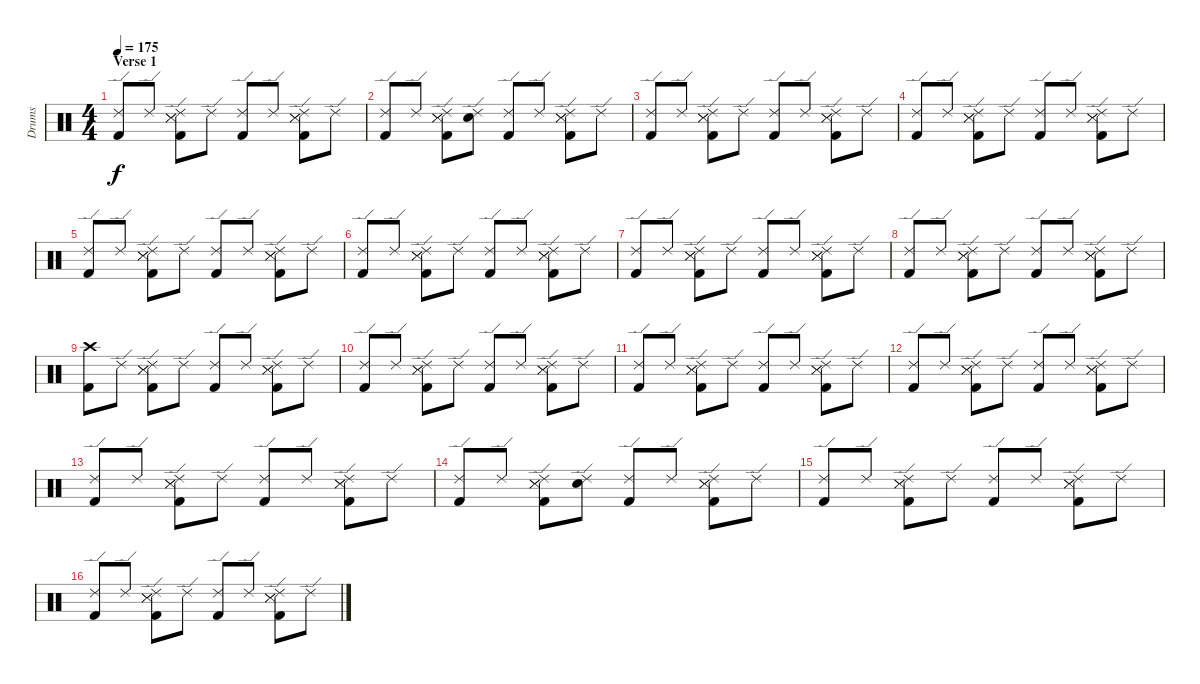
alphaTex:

\track ("Drums" "Drums") {instrument percussion}
\staff {score}
\articulation defaults
\ts (4 4)
\section ("" "Verse 1")
\tempo 175
\clef neutral
\ks c
("Ride (edge) 2" "Kick (hit) 2").8{dy f} "Ride (edge) 2".8 ("Ride (edge) 2" "Snare (side stick) 3" "Snare (side stick) 3" "Kick (hit) 2").8 "Ride (edge) 2".8 ("Ride (edge) 2" "Kick (hit) 2").8 "Ride (edge) 2".8 ("Ride (edge) 2" "Snare (side stick) 3" "Snare (side stick) 3" "Kick (hit) 2").8 "Ride (edge) 2".8 |
("Ride (edge) 2" "Kick (hit) 2").8 "Ride (edge) 2".8 ("Ride (edge) 2" "Snare (side stick) 3" "Snare (side stick) 3" "Kick (hit) 2").8 ("Ride (edge) 2" "Snare (hit)").8 ("Ride (edge) 2" "Kick (hit) 2").8 "Ride (edge) 2".8 ("Ride (edge) 2" "Snare (side stick) 3" "Snare (side stick) 3" "Kick (hit) 2").8 "Ride (edge) 2".8 |
("Ride (edge) 2" "Kick (hit) 2").8 "Ride (edge) 2".8 ("Ride (edge) 2" "Snare (side stick) 3" "Snare (side stick) 3" "Kick (hit) 2").8 "Ride (edge) 2".8 ("Ride (edge) 2" "Kick (hit) 2").8 "Ride (edge) 2".8 ("Ride (edge) 2" "Snare (side stick) 3" "Snare (side stick) 3" "Kick (hit) 2").8 "Ride (edge) 2".8 |
("Ride (edge) 2" "Kick (hit) 2").8 "Ride (edge) 2".8 ("Ride (edge) 2" "Snare (side stick) 3" "Snare (side stick) 3" "Kick (hit) 2").8 "Ride (edge) 2".8 ("Ride (edge) 2" "Kick (hit) 2").8 "Ride (edge) 2".8 ("Ride (edge) 2" "Snare (side stick) 3" "Snare (side stick) 3" "Kick (hit) 2").8 "Ride (edge) 2".8 |
("Ride (edge) 2" "Kick (hit) 2").8 "Ride (edge) 2".8 ("Ride (edge) 2" "Snare (side stick) 3" "Snare (side stick) 3" "Kick (hit) 2").8 "Ride (edge) 2".8 ("Ride (edge) 2" "Kick (hit) 2").8 "Ride (edge) 2".8 ("Ride (edge) 2" "Snare (side stick) 3" "Snare (side stick) 3" "Kick (hit) 2").8 "Ride (edge) 2".8 |
("Ride (edge) 2" "Kick (hit) 2").8 "Ride (edge) 2".8 ("Ride (edge) 2" "Snare (side stick) 3" "Snare (side stick) 3" "Kick (hit) 2").8 "Ride (edge) 2".8 ("Ride (edge) 2" "Kick (hit) 2").8 "Ride (edge) 2".8 ("Ride (edge) 2" "Snare (side stick) 3" "Snare (side stick) 3" "Kick (hit) 2").8 "Ride (edge) 2".8 |
("Ride (edge) 2" "Kick (hit) 2").8 "Ride (edge) 2".8 ("Ride (edge) 2" "Snare (side stick) 3" "Snare (side stick) 3" "Kick (hit) 2").8 "Ride (edge) 2".8 ("Ride (edge) 2" "Kick (hit) 2").8 "Ride (edge) 2".8 ("Ride (edge) 2" "Snare (side stick) 3" "Snare (side stick) 3" "Kick (hit) 2").8 "Ride (edge) 2".8 |
("Ride (edge) 2" "Kick (hit) 2").8 "Ride (edge) 2".8 ("Ride (edge) 2" "Snare (side stick) 3" "Snare (side stick) 3" "Kick (hit) 2").8 "Ride (edge) 2".8 ("Ride (edge) 2" "Kick (hit) 2").8 "Ride (edge) 2".8 ("Ride (edge) 2" "Snare (side stick) 3" "Snare (side stick) 3" "Kick (hit) 2").8 "Ride (edge) 2".8 |
("Crash high (hit)" "Kick (hit) 2").8 "Ride (edge) 2".8 ("Ride (edge) 2" "Snare (side stick) 3" "Snare (side stick) 3" "Kick (hit) 2").8 "Ride (edge) 2".8 ("Ride (edge) 2" "Kick (hit) 2").8 "Ride (edge) 2".8 ("Ride (edge) 2" "Snare (side stick) 3" "Snare (side stick) 3" "Kick (hit) 2").8 "Ride (edge) 2".8 |
("Ride (edge) 2" "Kick (hit) 2").8 "Ride (edge) 2".8 ("Ride (edge) 2" "Snare (side stick) 3" "Snare (side stick) 3" "Kick (hit) 2").8 "Ride (edge) 2".8 ("Ride (edge) 2" "Kick (hit) 2").8 "Ride (edge) 2".8 ("Ride (edge) 2" "Snare (side stick) 3" "Snare (side stick) 3" "Kick (hit) 2").8 "Ride (edge) 2".8 |
("Ride (edge) 2" "Kick (hit) 2").8 "Ride (edge) 2".8 ("Ride (edge) 2" "Snare (side stick) 3" "Snare (side stick) 3" "Kick (hit) 2").8 "Ride (edge) 2".8 ("Ride (edge) 2" "Kick (hit) 2").8 "Ride (edge) 2".8 ("Ride (edge) 2" "Snare (side stick) 3" "Snare (side stick) 3" "Kick (hit) 2").8 "Ride (edge) 2".8 |
("Ride (edge) 2" "Kick (hit) 2").8 "Ride (edge) 2".8 ("Ride (edge) 2" "Snare (side stick) 3" "Snare (side stick) 3" "Kick (hit) 2").8 "Ride (edge) 2".8 ("Ride (edge) 2" "Kick (hit) 2").8 "Ride (edge) 2".8 ("Ride (edge) 2" "Snare (side stick) 3" "Snare (side stick) 3" "Kick (hit) 2").8 "Ride (edge) 2".8 |
("Ride (edge) 2" "Kick (hit) 2").8 "Ride (edge) 2".8 ("Ride (edge) 2" "Snare (side stick) 3" "Snare (side stick) 3" "Kick (hit) 2").8 "Ride (edge) 2".8 ("Ride (edge) 2" "Kick (hit) 2").8 "Ride (edge) 2".8 ("Ride (edge) 2" "Snare (side stick) 3" "Snare (side stick) 3" "Kick (hit) 2").8 "Ride (edge) 2".8 |
("Ride (edge) 2" "Kick (hit) 2").8 "Ride (edge) 2".8 ("Ride (edge) 2" "Snare (side stick) 3" "Snare (side stick) 3" "Kick (hit) 2").8 ("Ride (edge) 2" "Snare (hit)").8 ("Ride (edge) 2" "Kick (hit) 2").8 "Ride (edge) 2".8 ("Ride (edge) 2" "Snare (side stick) 3" "Snare (side stick) 3" "Kick (hit) 2").8 "Ride (edge) 2".8 |
("Ride (edge) 2" "Kick (hit) 2").8 "Ride (edge) 2".8 ("Ride (edge) 2" "Snare (side stick) 3" "Snare (side stick) 3" "Kick (hit) 2").8 "Ride (edge) 2".8 ("Ride (edge) 2" "Kick (hit) 2").8 "Ride (edge) 2".8 ("Ride (edge) 2" "Snare (side stick) 3" "Snare (side stick) 3" "Kick (hit) 2").8 "Ride (edge) 2".8 |
("Ride (edge) 2" "Kick (hit) 2").8 "Ride (edge) 2".8 ("Ride (edge) 2" "Snare (side stick) 3" "Snare (side stick) 3" "Kick (hit) 2").8 "Ride (edge) 2".8 ("Ride (edge) 2" "Kick (hit) 2").8 "Ride (edge) 2".8 ("Ride (edge) 2" "Snare (side stick) 3" "Snare (side stick) 3" "Kick (hit) 2").8 "Ride (edge) 2".8
